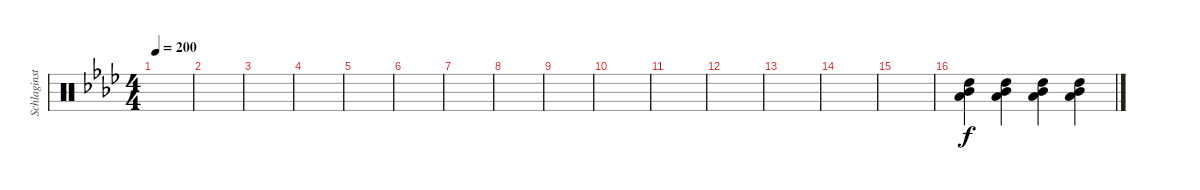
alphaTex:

\track ("Schlaginstrumente - Auswahl" "Schlaginst") {instrument percussion}
\staff {score}
\articulation defaults
\ts (4 4)
\tempo 200
\clef neutral
\ks fminor
|
|
|
|
|
|
|
|
|
|
|
|
|
|
|
("Mid Tom (hit)" "Low Floor Tom (hit)" "High Tom (hit)").4 ("Mid Tom (hit)" "Low Floor Tom (hit)" "High Tom (hit)").4 ("Mid Tom (hit)" "Low Floor Tom (hit)" "High Tom (hit)").4 ("Mid Tom (hit)" "Low Floor Tom (hit)" "High Tom (hit)").4
